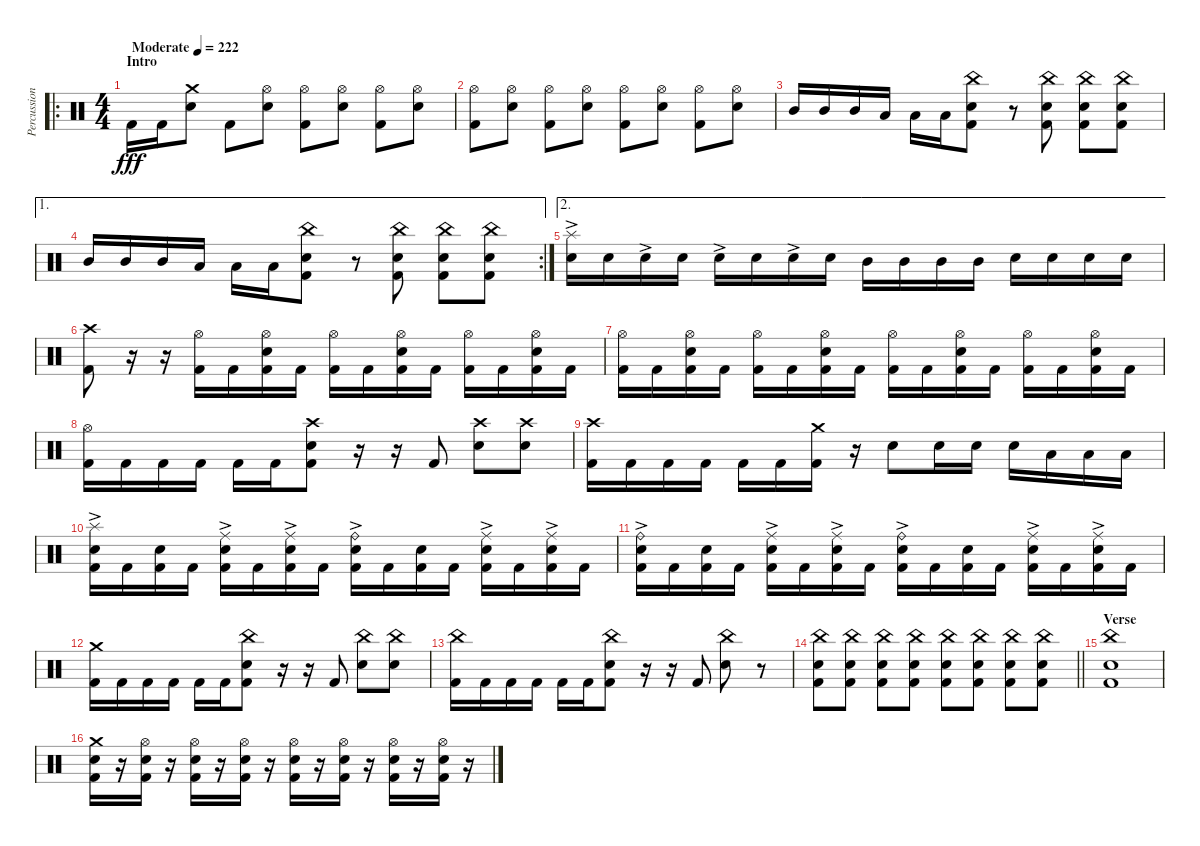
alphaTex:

\track ("Percussion" "Percussion") {instrument percussion}
\staff {score}
\articulation defaults
\ro
\ts (4 4)
\section ("" "Intro")
\tempo (222 "Moderate")
\clef neutral
\ks c "Kick (hit) 2".16{dy fff} "Kick (hit) 2".16
("Crash medium (hit)" "Electric Snare (hit)").8 "Kick (hit) 2".8 ("Hi-Hat (open)" "Electric Snare (hit)").8 ("Hi-Hat (open)" "Kick (hit) 2").8 ("Hi-Hat (open)" "Electric Snare (hit)").8 ("Hi-Hat (open)" "Kick (hit) 2").8 ("Hi-Hat (open)" "Electric Snare (hit)").8 |
("Hi-Hat (open)" "Kick (hit) 2").8 ("Hi-Hat (open)" "Electric Snare (hit)").8 ("Hi-Hat (open)" "Kick (hit) 2").8 ("Hi-Hat (open)" "Electric Snare (hit)").8 ("Hi-Hat (open)" "Kick (hit) 2").8 ("Hi-Hat (open)" "Electric Snare (hit)").8 ("Hi-Hat (open)" "Kick (hit) 2").8 ("Hi-Hat (open)" "Electric Snare (hit)").8 |
"Mid Tom (hit)".16 "Mid Tom (hit)".16 "Mid Tom (hit)".16 "Low Tom (hit)".16 "Low Tom (hit)".16 "Low Tom (hit)".16 ("China (hit)" "Electric Snare (hit)" "Kick (hit) 2").8 r.8 ("China (hit)" "Electric Snare (hit)" "Kick (hit) 2").8 ("China (hit)" "Electric Snare (hit)" "Kick (hit) 2").8 ("China (hit)" "Electric Snare (hit)" "Kick (hit) 2").8 |
\ae 1
\rc 2 "Mid Tom (hit)".16 "Mid Tom (hit)".16 "Mid Tom (hit)".16 "Low Tom (hit)".16 "Low Tom (hit)".16 "Low Tom (hit)".16
("China (hit)" "Electric Snare (hit)" "Kick (hit) 2").8 r.8 ("China (hit)" "Electric Snare (hit)" "Kick (hit) 2").8 ("China (hit)" "Electric Snare (hit)" "Kick (hit) 2").8 ("China (hit)" "Electric Snare (hit)" "Kick (hit) 2").8 |
\ae 2
("Splash (hit)" "Electric Snare (hit)"{ac}).16 "Electric Snare (hit)".16 "Electric Snare (hit)"{ac}.16 "Electric Snare (hit)".16 "Electric Snare (hit)"{ac}.16 "Electric Snare (hit)".16 "Electric Snare (hit)"{ac}.16 "Electric Snare (hit)".16 "Mid Tom (hit)".16 "Mid Tom (hit)".16 "Mid Tom (hit)".16 "Mid Tom (hit)".16 "Electric Snare (hit)".16 "Electric Snare (hit)".16 "Electric Snare (hit)".16 "Electric Snare (hit)".16 |
("Crash high (hit)" "Kick (hit) 2").8 r.16 r.16 ("Hi-Hat (open)" "Kick (hit) 2").16 "Kick (hit) 2".16 ("Hi-Hat (open)" "Electric Snare (hit)" "Kick (hit) 2").16 "Kick (hit) 2".16 ("Hi-Hat (open)" "Kick (hit) 2").16 "Kick (hit) 2".16 ("Hi-Hat (open)" "Electric Snare (hit)" "Kick (hit) 2").16 "Kick (hit) 2".16 ("Hi-Hat (open)" "Kick (hit) 2").16 "Kick (hit) 2".16 ("Hi-Hat (open)" "Electric Snare (hit)" "Kick (hit) 2").16 "Kick (hit) 2".16 |
("Hi-Hat (open)" "Kick (hit) 2").16 "Kick (hit) 2".16 ("Hi-Hat (open)" "Electric Snare (hit)" "Kick (hit) 2").16 "Kick (hit) 2".16 ("Hi-Hat (open)" "Kick (hit) 2").16 "Kick (hit) 2".16 ("Hi-Hat (open)" "Electric Snare (hit)" "Kick (hit) 2").16 "Kick (hit) 2".16 ("Hi-Hat (open)" "Kick (hit) 2").16 "Kick (hit) 2".16 ("Hi-Hat (open)" "Electric Snare (hit)" "Kick (hit) 2").16 "Kick (hit) 2".16 ("Hi-Hat (open)" "Kick (hit) 2").16 "Kick (hit) 2".16 ("Hi-Hat (open)" "Electric Snare (hit)" "Kick (hit) 2").16 "Kick (hit) 2".16 |
("Hi-Hat (open)" "Kick (hit) 2").16 "Kick (hit) 2".16 "Kick (hit) 2".16 "Kick (hit) 2".16 "Kick (hit) 2".16 "Kick (hit) 2".16 ("Crash high (hit)" "Electric Snare (hit)" "Kick (hit) 2").8 r.16 r.16 "Kick (hit) 2".8 ("Crash high (hit)" "Electric Snare (hit)").8 ("Crash high (hit)" "Electric Snare (hit)").8 |
("Crash high (hit)" "Kick (hit) 2").16 "Kick (hit) 2".16 "Kick (hit) 2".16 "Kick (hit) 2".16 "Kick (hit) 2".16 "Kick (hit) 2".16 ("Crash medium (hit)" "Kick (hit) 2").16 r.16 "Electric Snare (hit)".8 "Electric Snare (hit)".16 "Electric Snare (hit)".16 "Electric Snare (hit)".16 "Low Tom (hit)".16 "Low Tom (hit)".16 "Low Tom (hit)".16 |
("Splash (hit)"{ac} "Electric Snare (hit)" "Kick (hit) 2").16 "Kick (hit) 2".16 ("Electric Snare (hit)" "Kick (hit) 2").16 "Kick (hit) 2".16 ("Ride (middle)"{ac} "Electric Snare (hit)" "Kick (hit) 2").16 "Kick (hit) 2".16 ("Ride (middle)"{ac} "Electric Snare (hit)" "Kick (hit) 2").16 "Kick (hit) 2".16 ("Ride (bell)"{ac} "Electric Snare (hit)" "Kick (hit) 2").16 "Kick (hit) 2".16 ("Electric Snare (hit)" "Kick (hit) 2").16 "Kick (hit) 2".16 ("Ride (middle)"{ac} "Electric Snare (hit)" "Kick (hit) 2").16 "Kick (hit) 2".16 ("Ride (middle)"{ac} "Electric Snare (hit)" "Kick (hit) 2").16 "Kick (hit) 2".16 |
("Ride (bell)"{ac} "Electric Snare (hit)" "Kick (hit) 2").16 "Kick (hit) 2".16 ("Electric Snare (hit)" "Kick (hit) 2").16 "Kick (hit) 2".16 ("Ride (middle)"{ac} "Electric Snare (hit)" "Kick (hit) 2").16 "Kick (hit) 2".16 ("Ride (middle)"{ac} "Electric Snare (hit)" "Kick (hit) 2").16 "Kick (hit) 2".16 ("Ride (bell)"{ac} "Electric Snare (hit)" "Kick (hit) 2").16 "Kick (hit) 2".16 ("Electric Snare (hit)" "Kick (hit) 2").16 "Kick (hit) 2".16 ("Ride (middle)"{ac} "Electric Snare (hit)" "Kick (hit) 2").16 "Kick (hit) 2".16 ("Ride (middle)"{ac} "Electric Snare (hit)" "Kick (hit) 2").16 "Kick (hit) 2".16 |
("Crash medium (hit)" "Kick (hit) 2").16 "Kick (hit) 2".16 "Kick (hit) 2".16 "Kick (hit) 2".16 "Kick (hit) 2".16 "Kick (hit) 2".16 ("China (hit)" "Electric Snare (hit)" "Kick (hit) 2").8 r.16 r.16 "Kick (hit) 2".8 ("China (hit)" "Electric Snare (hit)").8 ("China (hit)" "Electric Snare (hit)").8 |
("China (hit)" "Kick (hit) 2").16 "Kick (hit) 2".16 "Kick (hit) 2".16 "Kick (hit) 2".16 "Kick (hit) 2".16 "Kick (hit) 2".16 ("China (hit)" "Electric Snare (hit)" "Kick (hit) 2").8 r.16 r.16 "Kick (hit) 2".8 ("China (hit)" "Electric Snare (hit)").8 r.8 |
\barLineRight lightlight
("China (hit)" "Electric Snare (hit)" "Kick (hit) 2").8 ("China (hit)" "Electric Snare (hit)" "Kick (hit) 2").8 ("China (hit)" "Electric Snare (hit)" "Kick (hit) 2").8 ("China (hit)" "Electric Snare (hit)" "Kick (hit) 2").8 ("China (hit)" "Electric Snare (hit)" "Kick (hit) 2").8 ("China (hit)" "Electric Snare (hit)" "Kick (hit) 2").8 ("China (hit)" "Electric Snare (hit)" "Kick (hit) 2").8 ("China (hit)" "Electric Snare (hit)" "Kick (hit) 2").8 |
\section ("" "Verse")
("China (hit)" "Electric Snare (hit)" "Kick (hit) 2").1 |
("Crash medium (hit)" "Electric Snare (hit)" "Kick (hit) 2").16 r.16 ("Hi-Hat (open)" "Electric Snare (hit)" "Kick (hit) 2").16 r.16 ("Hi-Hat (open)" "Electric Snare (hit)" "Kick (hit) 2").16 r.16 ("Hi-Hat (open)" "Electric Snare (hit)" "Kick (hit) 2").16 r.16 ("Hi-Hat (open)" "Electric Snare (hit)" "Kick (hit) 2").16 r.16 ("Hi-Hat (open)" "Electric Snare (hit)" "Kick (hit) 2").16 r.16 ("Hi-Hat (open)" "Electric Snare (hit)" "Kick (hit) 2").16 r.16 ("Hi-Hat (open)" "Electric Snare (hit)" "Kick (hit) 2").16 r.16
